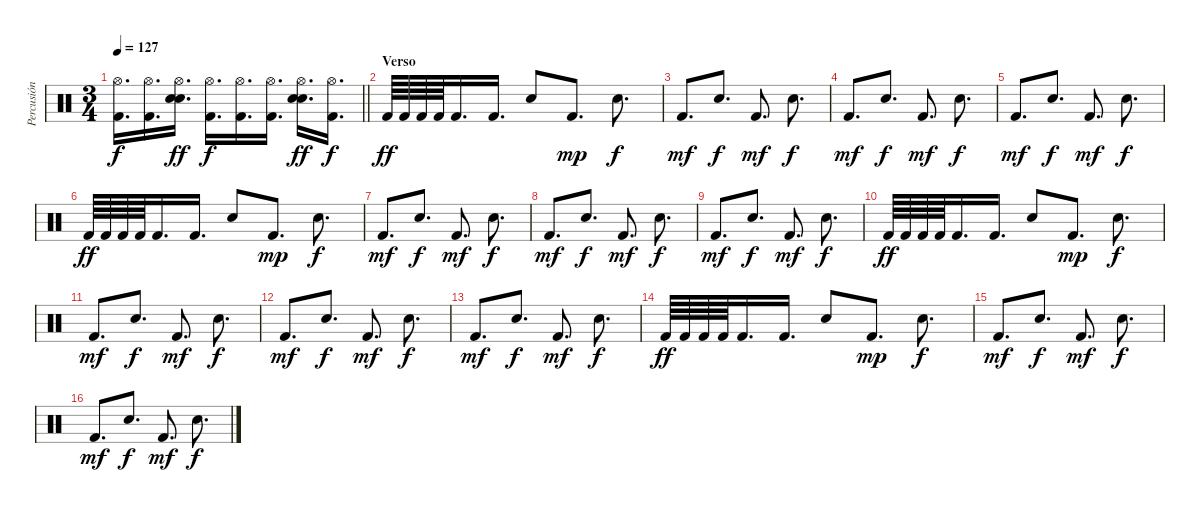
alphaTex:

\track ("Percusión" "Percusión") {instrument percussion}
\staff {score}
\articulation defaults
\ts (3 4)
\tempo 127
\clef neutral
\barLineRight lightlight
\ks c
("Hi-Hat (open)" "Kick (hit) 2").16{d dy f} ("Hi-Hat (open)" "Kick (hit) 2").16{d} ("Hi-Hat (open)" "Snare (hit) 2" "Snare (hit) 2").16{d dy ff} ("Hi-Hat (open)" "Kick (hit) 2").16{d dy f} ("Hi-Hat (open)" "Kick (hit) 2").16{d} ("Hi-Hat (open)" "Kick (hit) 2").16{d} ("Hi-Hat (open)" "Snare (hit) 2" "Snare (hit) 2").16{d dy ff} ("Hi-Hat (open)" "Kick (hit) 2").16{d dy f} |
\section ("" "Verso")
"Kick (hit) 2".64{dy ff} "Kick (hit) 2".64 "Kick (hit) 2".64 "Kick (hit) 2".64 "Kick (hit) 2".16{d} "Kick (hit) 2".16{d} "Snare (hit) 2".8 "Kick (hit) 2".8{d dy mp} "Snare (hit) 2".8{d dy f} |
"Kick (hit) 2".8{d dy mf} "Snare (hit) 2".8{d dy f} "Kick (hit) 2".8{d dy mf} "Snare (hit) 2".8{d dy f} |
"Kick (hit) 2".8{d dy mf} "Snare (hit) 2".8{d dy f} "Kick (hit) 2".8{d dy mf} "Snare (hit) 2".8{d dy f} |
"Kick (hit) 2".8{d dy mf} "Snare (hit) 2".8{d dy f} "Kick (hit) 2".8{d dy mf} "Snare (hit) 2".8{d dy f} |
"Kick (hit) 2".64{dy ff} "Kick (hit) 2".64 "Kick (hit) 2".64 "Kick (hit) 2".64 "Kick (hit) 2".16{d} "Kick (hit) 2".16{d} "Snare (hit) 2".8 "Kick (hit) 2".8{d dy mp} "Snare (hit) 2".8{d dy f} |
"Kick (hit) 2".8{d dy mf} "Snare (hit) 2".8{d dy f} "Kick (hit) 2".8{d dy mf} "Snare (hit) 2".8{d dy f} |
"Kick (hit) 2".8{d dy mf} "Snare (hit) 2".8{d dy f} "Kick (hit) 2".8{d dy mf} "Snare (hit) 2".8{d dy f} |
"Kick (hit) 2".8{d dy mf} "Snare (hit) 2".8{d dy f} "Kick (hit) 2".8{d dy mf} "Snare (hit) 2".8{d dy f} |
"Kick (hit) 2".64{dy ff} "Kick (hit) 2".64 "Kick (hit) 2".64 "Kick (hit) 2".64 "Kick (hit) 2".16{d} "Kick (hit) 2".16{d} "Snare (hit) 2".8 "Kick (hit) 2".8{d dy mp} "Snare (hit) 2".8{d dy f} |
"Kick (hit) 2".8{d dy mf} "Snare (hit) 2".8{d dy f} "Kick (hit) 2".8{d dy mf} "Snare (hit) 2".8{d dy f} |
"Kick (hit) 2".8{d dy mf} "Snare (hit) 2".8{d dy f} "Kick (hit) 2".8{d dy mf} "Snare (hit) 2".8{d dy f} |
"Kick (hit) 2".8{d dy mf} "Snare (hit) 2".8{d dy f} "Kick (hit) 2".8{d dy mf} "Snare (hit) 2".8{d dy f} |
"Kick (hit) 2".64{dy ff} "Kick (hit) 2".64 "Kick (hit) 2".64 "Kick (hit) 2".64 "Kick (hit) 2".16{d} "Kick (hit) 2".16{d} "Snare (hit) 2".8 "Kick (hit) 2".8{d dy mp} "Snare (hit) 2".8{d dy f} |
"Kick (hit) 2".8{d dy mf} "Snare (hit) 2".8{d dy f} "Kick (hit) 2".8{d dy mf} "Snare (hit) 2".8{d dy f} |
"Kick (hit) 2".8{d dy mf} "Snare (hit) 2".8{d dy f} "Kick (hit) 2".8{d dy mf} "Snare (hit) 2".8{d dy f}
